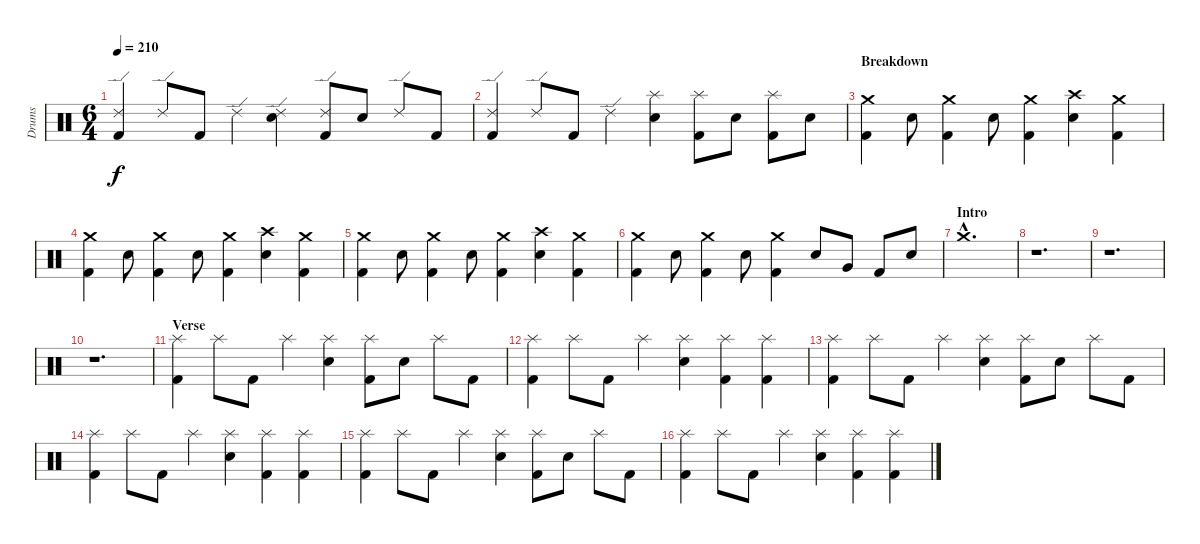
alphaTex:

\track ("Drums" "Drums") {instrument percussion}
\staff {score}
\articulation defaults
\ts (6 4)
\tempo 210
\clef neutral
\ks c
("Ride (edge) 2" "Kick (hit) 2").4{dy f} "Ride (edge) 2".8 "Kick (hit) 2".8 "Ride (edge) 2".4 ("Ride (edge) 2" "Electric Snare (hit)").4 ("Ride (edge) 2" "Kick (hit) 2").8 "Electric Snare (hit)".8 "Ride (edge) 2".8 "Kick (hit) 2".8 |
("Ride (edge) 2" "Kick (hit) 2").4 "Ride (edge) 2".8 "Kick (hit) 2".8 "Ride (edge) 2".4 ("Splash (hit)" "Electric Snare (hit)").4 ("Splash (hit)" "Kick (hit) 2").8 "Electric Snare (hit)".8 ("Splash (hit)" "Kick (hit) 2").8 "Electric Snare (hit)".8 |
\section ("" "Breakdown")
("Crash medium (hit)" "Kick (hit) 2").4 "Electric Snare (hit)".8 ("Crash medium (hit)" "Kick (hit) 2").4 "Electric Snare (hit)".8 ("Crash medium (hit)" "Kick (hit) 2").4 ("Crash high (hit)" "Electric Snare (hit)").4 ("Crash medium (hit)" "Kick (hit) 2").4 |
("Crash medium (hit)" "Kick (hit) 2").4 "Electric Snare (hit)".8 ("Crash medium (hit)" "Kick (hit) 2").4 "Electric Snare (hit)".8 ("Crash medium (hit)" "Kick (hit) 2").4 ("Crash high (hit)" "Electric Snare (hit)").4 ("Crash medium (hit)" "Kick (hit) 2").4 |
("Crash medium (hit)" "Kick (hit) 2").4 "Electric Snare (hit)".8 ("Crash medium (hit)" "Kick (hit) 2").4 "Electric Snare (hit)".8 ("Crash medium (hit)" "Kick (hit) 2").4 ("Crash high (hit)" "Electric Snare (hit)").4 ("Crash medium (hit)" "Kick (hit) 2").4 |
("Crash medium (hit)" "Kick (hit) 2").4 "Electric Snare (hit)".8 ("Crash medium (hit)" "Kick (hit) 2").4 "Electric Snare (hit)".8 ("Crash medium (hit)" "Kick (hit) 2").4 "Electric Snare (hit)".8 "Very Low Tom (hit)".8 "Kick (hit) 2".8 "Electric Snare (hit)".8 |
\section ("" "Intro")
"Crash medium (hit)"{hac}.1{d} |
r.1{d} |
r.1{d} |
r.1{d} |
\section ("" "Verse")
("Splash (hit)" "Kick (hit) 2").4 "Splash (hit)".8 "Kick (hit) 2".8 "Splash (hit)".4 ("Splash (hit)" "Electric Snare (hit)").4 ("Splash (hit)" "Kick (hit) 2").8 "Electric Snare (hit)".8 "Splash (hit)".8 "Kick (hit) 2".8 |
("Splash (hit)" "Kick (hit) 2").4 "Splash (hit)".8 "Kick (hit) 2".8 "Splash (hit)".4 ("Splash (hit)" "Electric Snare (hit)").4 ("Splash (hit)" "Kick (hit) 2").4 ("Splash (hit)" "Kick (hit) 2").4 |
("Splash (hit)" "Kick (hit) 2").4 "Splash (hit)".8 "Kick (hit) 2".8 "Splash (hit)".4 ("Splash (hit)" "Electric Snare (hit)").4 ("Splash (hit)" "Kick (hit) 2").8 "Electric Snare (hit)".8 "Splash (hit)".8 "Kick (hit) 2".8 |
("Splash (hit)" "Kick (hit) 2").4 "Splash (hit)".8 "Kick (hit) 2".8 "Splash (hit)".4 ("Splash (hit)" "Electric Snare (hit)").4 ("Splash (hit)" "Kick (hit) 2").4 ("Splash (hit)" "Kick (hit) 2").4 |
("Splash (hit)" "Kick (hit) 2").4 "Splash (hit)".8 "Kick (hit) 2".8 "Splash (hit)".4 ("Splash (hit)" "Electric Snare (hit)").4 ("Splash (hit)" "Kick (hit) 2").8 "Electric Snare (hit)".8 "Splash (hit)".8 "Kick (hit) 2".8 |
("Splash (hit)" "Kick (hit) 2").4 "Splash (hit)".8 "Kick (hit) 2".8 "Splash (hit)".4 ("Splash (hit)" "Electric Snare (hit)").4 ("Splash (hit)" "Kick (hit) 2").4 ("Splash (hit)" "Kick (hit) 2").4
